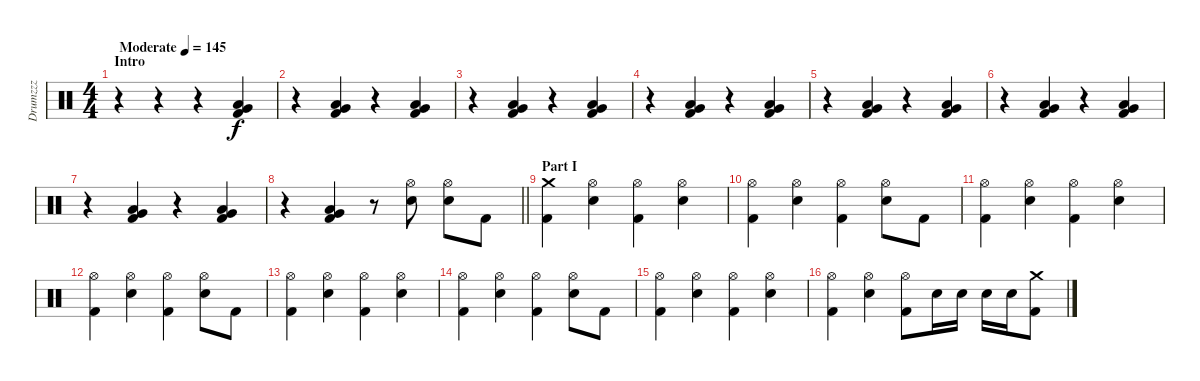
\track ("Drumzzz" "Drumzzz") {instrument percussion}
\staff {score}
\articulation defaults
\ts (4 4)
\section ("" "Intro")
\tempo (145 "Moderate")
\clef neutral
\ks c
r.4{dy f} r.4 r.4 ("Low Floor Tom (hit)" "Very Low Tom (hit)" "Kick (hit) 2").4 |
r.4 ("Low Floor Tom (hit)" "Very Low Tom (hit)" "Kick (hit) 2").4 r.4 ("Low Floor Tom (hit)" "Very Low Tom (hit)" "Kick (hit) 2").4 |
r.4 ("Low Floor Tom (hit)" "Very Low Tom (hit)" "Kick (hit) 2").4 r.4 ("Low Floor Tom (hit)" "Very Low Tom (hit)" "Kick (hit) 2").4 |
r.4 ("Low Floor Tom (hit)" "Very Low Tom (hit)" "Kick (hit) 2").4 r.4 ("Low Floor Tom (hit)" "Very Low Tom (hit)" "Kick (hit) 2").4 |
r.4 ("Low Floor Tom (hit)" "Very Low Tom (hit)" "Kick (hit) 2").4 r.4 ("Low Floor Tom (hit)" "Very Low Tom (hit)" "Kick (hit) 2").4 |
r.4 ("Low Floor Tom (hit)" "Very Low Tom (hit)" "Kick (hit) 2").4 r.4 ("Low Floor Tom (hit)" "Very Low Tom (hit)" "Kick (hit) 2").4 |
r.4 ("Low Floor Tom (hit)" "Very Low Tom (hit)" "Kick (hit) 2").4 r.4 ("Low Floor Tom (hit)" "Very Low Tom (hit)" "Kick (hit) 2").4 |
\barLineRight lightlight
r.4 ("Low Floor Tom (hit)" "Very Low Tom (hit)" "Kick (hit) 2").4 r.8 ("Hi-Hat (open)" "Electric Snare (hit)").8 ("Hi-Hat (open)" "Electric Snare (hit)").8 "Kick (hit) 2".8 |
\section ("" "Part I ")
("Crash medium (hit)" "Kick (hit) 2").4 ("Hi-Hat (open)" "Electric Snare (hit)").4 ("Hi-Hat (open)" "Kick (hit) 2").4 ("Hi-Hat (open)" "Electric Snare (hit)").4 |
("Hi-Hat (open)" "Kick (hit) 2").4 ("Hi-Hat (open)" "Electric Snare (hit)").4 ("Hi-Hat (open)" "Kick (hit) 2").4 ("Hi-Hat (open)" "Electric Snare (hit)").8 "Kick (hit) 2".8 |
("Hi-Hat (open)" "Kick (hit) 2").4 ("Hi-Hat (open)" "Electric Snare (hit)").4 ("Hi-Hat (open)" "Kick (hit) 2").4 ("Hi-Hat (open)" "Electric Snare (hit)").4 |
("Hi-Hat (open)" "Kick (hit) 2").4 ("Hi-Hat (open)" "Electric Snare (hit)").4 ("Hi-Hat (open)" "Kick (hit) 2").4 ("Hi-Hat (open)" "Electric Snare (hit)").8 "Kick (hit) 2".8 |
("Hi-Hat (open)" "Kick (hit) 2").4 ("Hi-Hat (open)" "Electric Snare (hit)").4 ("Hi-Hat (open)" "Kick (hit) 2").4 ("Hi-Hat (open)" "Electric Snare (hit)").4 |
("Hi-Hat (open)" "Kick (hit) 2").4 ("Hi-Hat (open)" "Electric Snare (hit)").4 ("Hi-Hat (open)" "Kick (hit) 2").4 ("Hi-Hat (open)" "Electric Snare (hit)").8 "Kick (hit) 2".8 |
("Hi-Hat (open)" "Kick (hit) 2").4 ("Hi-Hat (open)" "Electric Snare (hit)").4 ("Hi-Hat (open)" "Kick (hit) 2").4 ("Hi-Hat (open)" "Electric Snare (hit)").4 |
("Hi-Hat (open)" "Kick (hit) 2").4 ("Hi-Hat (open)" "Electric Snare (hit)").4 ("Hi-Hat (open)" "Kick (hit) 2").8 "Electric Snare (hit)".16 "Electric Snare (hit)".16 "Electric Snare (hit)".16 "Electric Snare (hit)".16 ("Crash medium (hit)" "Kick (hit) 2").8
